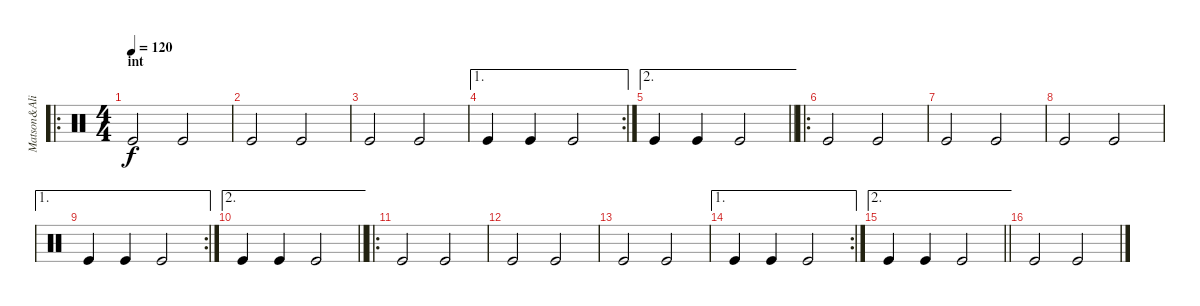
\track ("Matson&Ali" "Matson&Ali") {instrument percussion}
\staff {score}
\articulation defaults
\ro
\ts (4 4)
\section ("" "int")
\tempo 120
\clef neutral
\ks c "Kick (hit)".2{dy f} "Kick (hit)".2
|
"Kick (hit)".2 "Kick (hit)".2 |
"Kick (hit)".2 "Kick (hit)".2 |
\ae 1
\rc 2 "Kick (hit)".4 "Kick (hit)".4 "Kick (hit)".2
|
\ae 2
\barLineRight lightlight "Kick (hit)".4 "Kick (hit)".4 "Kick (hit)".2
|
\ro "Kick (hit)".2 "Kick (hit)".2
|
"Kick (hit)".2 "Kick (hit)".2 |
"Kick (hit)".2 "Kick (hit)".2 |
\ae 1
\rc 2 "Kick (hit)".4 "Kick (hit)".4 "Kick (hit)".2
|
\ae 2
\barLineRight lightlight "Kick (hit)".4 "Kick (hit)".4 "Kick (hit)".2
|
\ro "Kick (hit)".2 "Kick (hit)".2
|
"Kick (hit)".2 "Kick (hit)".2 |
"Kick (hit)".2 "Kick (hit)".2 |
\ae 1
\rc 2 "Kick (hit)".4 "Kick (hit)".4 "Kick (hit)".2
|
\ae 2
\barLineRight lightlight "Kick (hit)".4 "Kick (hit)".4 "Kick (hit)".2
|
"Kick (hit)".2 "Kick (hit)".2
